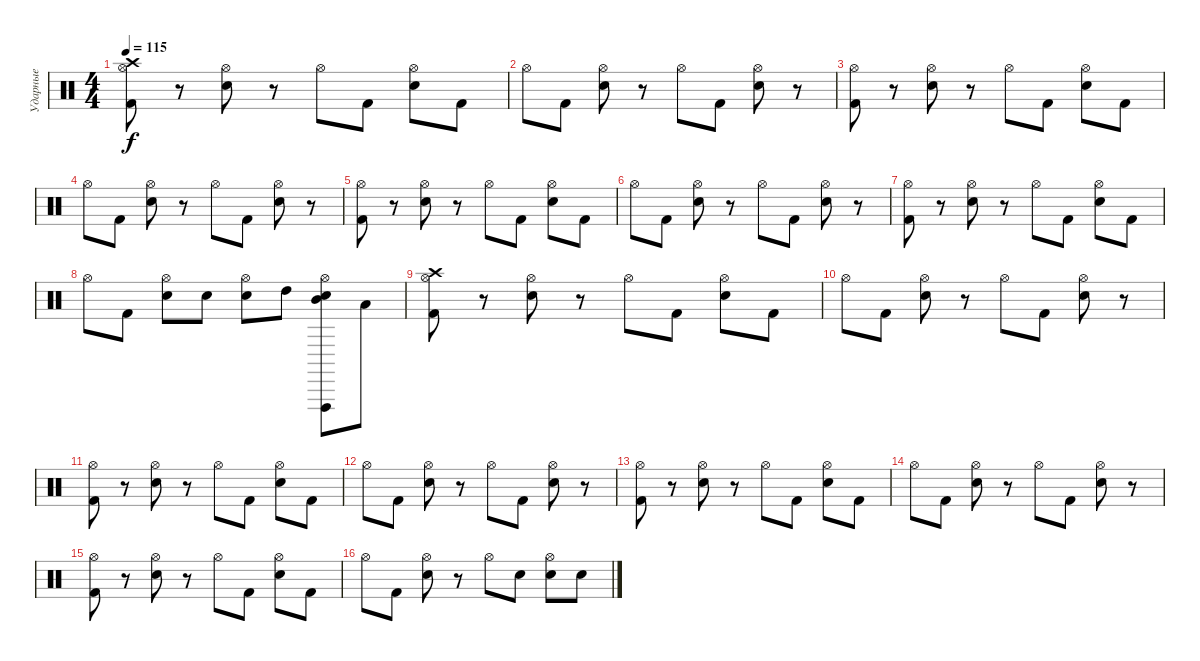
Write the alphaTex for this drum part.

\track ("Ударные" "Ударные") {instrument percussion}
\staff {score}
\articulation defaults
\ts (4 4)
\tempo 115
\clef neutral
\ks c
("Hi-Hat (open)" "Crash high (hit)" "Kick (hit) 2").8{dy f} r.8 ("Hi-Hat (open)" "Snare (hit) 2").8 r.8 "Hi-Hat (open)".8 "Kick (hit) 2".8 ("Hi-Hat (open)" "Snare (hit) 2").8 "Kick (hit) 2".8 |
"Hi-Hat (open)".8 "Kick (hit) 2".8 ("Hi-Hat (open)" "Snare (hit) 2").8 r.8 "Hi-Hat (open)".8 "Kick (hit) 2".8 ("Hi-Hat (open)" "Snare (hit) 2").8 r.8 |
("Hi-Hat (open)" "Kick (hit) 2").8 r.8 ("Hi-Hat (open)" "Snare (hit) 2").8 r.8 "Hi-Hat (open)".8 "Kick (hit) 2".8 ("Hi-Hat (open)" "Snare (hit) 2").8 "Kick (hit) 2".8 |
"Hi-Hat (open)".8 "Kick (hit) 2".8 ("Hi-Hat (open)" "Snare (hit) 2").8 r.8 "Hi-Hat (open)".8 "Kick (hit) 2".8 ("Hi-Hat (open)" "Snare (hit) 2").8 r.8 |
("Hi-Hat (open)" "Kick (hit) 2").8 r.8 ("Hi-Hat (open)" "Snare (hit) 2").8 r.8 "Hi-Hat (open)".8 "Kick (hit) 2".8 ("Hi-Hat (open)" "Snare (hit) 2").8 "Kick (hit) 2".8 |
"Hi-Hat (open)".8 "Kick (hit) 2".8 ("Hi-Hat (open)" "Snare (hit) 2").8 r.8 "Hi-Hat (open)".8 "Kick (hit) 2".8 ("Hi-Hat (open)" "Snare (hit) 2").8 r.8 |
("Hi-Hat (open)" "Kick (hit) 2").8 r.8 ("Hi-Hat (open)" "Snare (hit) 2").8 r.8 "Hi-Hat (open)".8 "Kick (hit) 2".8 ("Hi-Hat (open)" "Snare (hit) 2").8 "Kick (hit) 2".8 |
"Hi-Hat (open)".8 "Kick (hit) 2".8 ("Hi-Hat (open)" "Snare (hit) 2").8 "Snare (hit) 2".8 ("Hi-Hat (open)" "Snare (hit) 2").8 "High Tom (hit)".8 ("Hi-Hat (open)" "Vibraslap (hit)" "Mid Tom (hit)" "Snare (hit) 2").8 "Low Tom (hit)".8 |
("Hi-Hat (open)" "Crash high (hit)" "Kick (hit) 2").8 r.8 ("Hi-Hat (open)" "Snare (hit) 2").8 r.8 "Hi-Hat (open)".8 "Kick (hit) 2".8 ("Hi-Hat (open)" "Snare (hit) 2").8 "Kick (hit) 2".8 |
"Hi-Hat (open)".8 "Kick (hit) 2".8 ("Hi-Hat (open)" "Snare (hit) 2").8 r.8 "Hi-Hat (open)".8 "Kick (hit) 2".8 ("Hi-Hat (open)" "Snare (hit) 2").8 r.8 |
("Hi-Hat (open)" "Kick (hit) 2").8 r.8 ("Hi-Hat (open)" "Snare (hit) 2").8 r.8 "Hi-Hat (open)".8 "Kick (hit) 2".8 ("Hi-Hat (open)" "Snare (hit) 2").8 "Kick (hit) 2".8 |
"Hi-Hat (open)".8 "Kick (hit) 2".8 ("Hi-Hat (open)" "Snare (hit) 2").8 r.8 "Hi-Hat (open)".8 "Kick (hit) 2".8 ("Hi-Hat (open)" "Snare (hit) 2").8 r.8 |
("Hi-Hat (open)" "Kick (hit) 2").8 r.8 ("Hi-Hat (open)" "Snare (hit) 2").8 r.8 "Hi-Hat (open)".8 "Kick (hit) 2".8 ("Hi-Hat (open)" "Snare (hit) 2").8 "Kick (hit) 2".8 |
"Hi-Hat (open)".8 "Kick (hit) 2".8 ("Hi-Hat (open)" "Snare (hit) 2").8 r.8 "Hi-Hat (open)".8 "Kick (hit) 2".8 ("Hi-Hat (open)" "Snare (hit) 2").8 r.8 |
("Hi-Hat (open)" "Kick (hit) 2").8 r.8 ("Hi-Hat (open)" "Snare (hit) 2").8 r.8 "Hi-Hat (open)".8 "Kick (hit) 2".8 ("Hi-Hat (open)" "Snare (hit) 2").8 "Kick (hit) 2".8 |
"Hi-Hat (open)".8 "Kick (hit) 2".8 ("Hi-Hat (open)" "Snare (hit) 2").8 r.8 "Hi-Hat (open)".8 "Snare (hit) 2".8 ("Hi-Hat (open)" "Snare (hit) 2").8 "Snare (hit) 2".8
